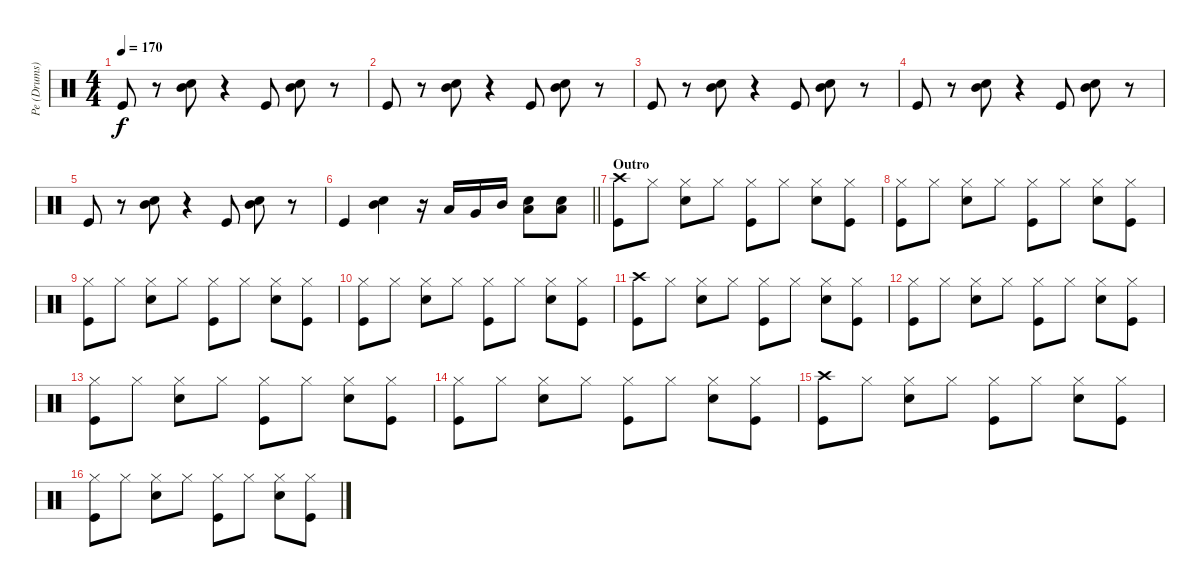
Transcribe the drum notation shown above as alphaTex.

\track ("Pe (Drums)" "Pe (Drums)") {instrument percussion}
\staff {score}
\articulation defaults
\ts (4 4)
\tempo 170
\clef neutral
\ks c "Kick (hit)".8{dy f}
r.8 ("Mid Tom (hit)" "Snare (hit) 2").8 r.4 "Kick (hit)".8 ("Mid Tom (hit)" "Snare (hit) 2").8 r.8 |
"Kick (hit)".8 r.8 ("Mid Tom (hit)" "Snare (hit) 2").8 r.4 "Kick (hit)".8 ("Mid Tom (hit)" "Snare (hit) 2").8 r.8 |
"Kick (hit)".8 r.8 ("Mid Tom (hit)" "Snare (hit) 2").8 r.4 "Kick (hit)".8 ("Mid Tom (hit)" "Snare (hit) 2").8 r.8 |
"Kick (hit)".8 r.8 ("Mid Tom (hit)" "Snare (hit) 2").8 r.4 "Kick (hit)".8 ("Mid Tom (hit)" "Snare (hit) 2").8 r.8 |
"Kick (hit)".8 r.8 ("Mid Tom (hit)" "Snare (hit) 2").8 r.4 "Kick (hit)".8 ("Mid Tom (hit)" "Snare (hit) 2").8 r.8 |
\barLineRight lightlight "Kick (hit)".4
("Mid Tom (hit)" "Snare (hit) 2").4 r.16 "Low Floor Tom (hit)".16 "Very Low Tom (hit)".16 "Mid Tom (hit)".16 ("Low Tom (hit)" "Snare (hit) 2").8 ("Low Tom (hit)" "Snare (hit) 2").8 |
\section ("" "Outro")
("Crash high (hit)" "Kick (hit)").8 "Hi-Hat (closed)".8 ("Hi-Hat (closed)" "Snare (hit) 2").8 "Hi-Hat (closed)".8 ("Hi-Hat (closed)" "Kick (hit)").8 "Hi-Hat (closed)".8 ("Hi-Hat (closed)" "Snare (hit) 2").8 ("Hi-Hat (closed)" "Kick (hit)").8 |
("Hi-Hat (closed)" "Kick (hit)").8 "Hi-Hat (closed)".8 ("Hi-Hat (closed)" "Snare (hit) 2").8 "Hi-Hat (closed)".8 ("Hi-Hat (closed)" "Kick (hit)").8 "Hi-Hat (closed)".8 ("Hi-Hat (closed)" "Snare (hit) 2").8 ("Hi-Hat (closed)" "Kick (hit)").8 |
("Hi-Hat (closed)" "Kick (hit)").8 "Hi-Hat (closed)".8 ("Hi-Hat (closed)" "Snare (hit) 2").8 "Hi-Hat (closed)".8 ("Hi-Hat (closed)" "Kick (hit)").8 "Hi-Hat (closed)".8 ("Hi-Hat (closed)" "Snare (hit) 2").8 ("Hi-Hat (closed)" "Kick (hit)").8 |
("Hi-Hat (closed)" "Kick (hit)").8 "Hi-Hat (closed)".8 ("Hi-Hat (closed)" "Snare (hit) 2").8 "Hi-Hat (closed)".8 ("Hi-Hat (closed)" "Kick (hit)").8 "Hi-Hat (closed)".8 ("Hi-Hat (closed)" "Snare (hit) 2").8 ("Hi-Hat (closed)" "Kick (hit)").8 |
("Crash high (hit)" "Kick (hit)").8 "Hi-Hat (closed)".8 ("Hi-Hat (closed)" "Snare (hit) 2").8 "Hi-Hat (closed)".8 ("Hi-Hat (closed)" "Kick (hit)").8 "Hi-Hat (closed)".8 ("Hi-Hat (closed)" "Snare (hit) 2").8 ("Hi-Hat (closed)" "Kick (hit)").8 |
("Hi-Hat (closed)" "Kick (hit)").8 "Hi-Hat (closed)".8 ("Hi-Hat (closed)" "Snare (hit) 2").8 "Hi-Hat (closed)".8 ("Hi-Hat (closed)" "Kick (hit)").8 "Hi-Hat (closed)".8 ("Hi-Hat (closed)" "Snare (hit) 2").8 ("Hi-Hat (closed)" "Kick (hit)").8 |
("Hi-Hat (closed)" "Kick (hit)").8 "Hi-Hat (closed)".8 ("Hi-Hat (closed)" "Snare (hit) 2").8 "Hi-Hat (closed)".8 ("Hi-Hat (closed)" "Kick (hit)").8 "Hi-Hat (closed)".8 ("Hi-Hat (closed)" "Snare (hit) 2").8 ("Hi-Hat (closed)" "Kick (hit)").8 |
("Hi-Hat (closed)" "Kick (hit)").8 "Hi-Hat (closed)".8 ("Hi-Hat (closed)" "Snare (hit) 2").8 "Hi-Hat (closed)".8 ("Hi-Hat (closed)" "Kick (hit)").8 "Hi-Hat (closed)".8 ("Hi-Hat (closed)" "Snare (hit) 2").8 ("Hi-Hat (closed)" "Kick (hit)").8 |
("Crash high (hit)" "Kick (hit)").8 "Hi-Hat (closed)".8 ("Hi-Hat (closed)" "Snare (hit) 2").8 "Hi-Hat (closed)".8 ("Hi-Hat (closed)" "Kick (hit)").8 "Hi-Hat (closed)".8 ("Hi-Hat (closed)" "Snare (hit) 2").8 ("Hi-Hat (closed)" "Kick (hit)").8 |
("Hi-Hat (closed)" "Kick (hit)").8 "Hi-Hat (closed)".8 ("Hi-Hat (closed)" "Snare (hit) 2").8 "Hi-Hat (closed)".8 ("Hi-Hat (closed)" "Kick (hit)").8 "Hi-Hat (closed)".8 ("Hi-Hat (closed)" "Snare (hit) 2").8 ("Hi-Hat (closed)" "Kick (hit)").8
